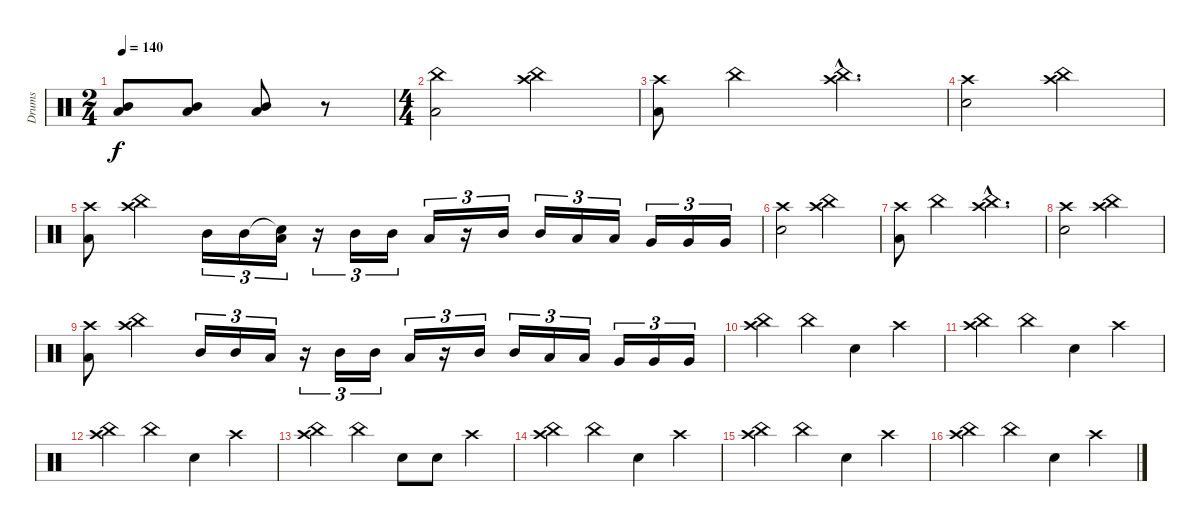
\track ("Drums" "Drums") {instrument percussion}
\staff {score}
\articulation defaults
\ts (2 4)
\tempo 140
\clef neutral
\ks c
("Mid Tom (hit)" "Low Floor Tom (hit)").8{dy f} ("Mid Tom (hit)" "Low Floor Tom (hit)").8 ("Mid Tom (hit)" "Low Floor Tom (hit)").8 r.8 |
\ts (4 4)
("China (hit)" "Low Floor Tom (hit)").2 ("Crash high (hit)" "China (hit)").2 |
("Crash high (hit)" "Low Floor Tom (hit)").8 "China (hit)".2 ("Crash high (hit)"{hac} "China (hit)"{hac}).4{d} |
("Crash high (hit)" "Snare (hit) 2").2 ("Crash high (hit)" "China (hit)").2 |
("Crash high (hit)" "Low Floor Tom (hit)").8 ("Crash high (hit)" "China (hit)").4 "Mid Tom (hit)".16{tu (3 2)} "Mid Tom (hit)".16{tu (3 2)} ("Snare (hit)"{t} "Low Floor Tom (hit)").16{tu (3 2)} r.16{tu (3 2)} "Mid Tom (hit)".16{tu (3 2)} "Mid Tom (hit)".16{tu (3 2)} "Low Floor Tom (hit)".16{tu (3 2)} r.16{tu (3 2)} "Mid Tom (hit)".16{tu (3 2)} "Mid Tom (hit)".16{tu (3 2)} "Low Floor Tom (hit)".16{tu (3 2)} "Low Floor Tom (hit)".16{tu (3 2)} "Very Low Tom (hit)".16{tu (3 2)} "Very Low Tom (hit)".16{tu (3 2)} "Very Low Tom (hit)".16{tu (3 2)} |
("Crash high (hit)" "Snare (hit) 2").2 ("Crash high (hit)" "China (hit)").2 |
("Crash high (hit)" "Low Floor Tom (hit)").8 "China (hit)".2 ("Crash high (hit)"{hac} "China (hit)"{hac}).4{d} |
("Crash high (hit)" "Snare (hit) 2").2 ("Crash high (hit)" "China (hit)").2 |
("Crash high (hit)" "Low Floor Tom (hit)").8 ("Crash high (hit)" "China (hit)").4 "Mid Tom (hit)".16{tu (3 2)} "Mid Tom (hit)".16{tu (3 2)} "Low Floor Tom (hit)".16{tu (3 2)} r.16{tu (3 2)} "Mid Tom (hit)".16{tu (3 2)} "Mid Tom (hit)".16{tu (3 2)} "Low Floor Tom (hit)".16{tu (3 2)} r.16{tu (3 2)} "Mid Tom (hit)".16{tu (3 2)} "Mid Tom (hit)".16{tu (3 2)} "Low Floor Tom (hit)".16{tu (3 2)} "Low Floor Tom (hit)".16{tu (3 2)} "Very Low Tom (hit)".16{tu (3 2)} "Very Low Tom (hit)".16{tu (3 2)} "Very Low Tom (hit)".16{tu (3 2)} |
("Crash high (hit)" "China (hit)").4 "China (hit)".4 "Electric Snare (hit)".4 "Crash high (hit)".4 |
("Crash high (hit)" "China (hit)").4 "China (hit)".4 "Electric Snare (hit)".4 "Crash high (hit)".4 |
("Crash high (hit)" "China (hit)").4 "China (hit)".4 "Electric Snare (hit)".4 "Crash high (hit)".4 |
("Crash high (hit)" "China (hit)").4 "China (hit)".4 "Electric Snare (hit)".8 "Electric Snare (hit)".8 "Crash high (hit)".4 |
("Crash high (hit)" "China (hit)").4 "China (hit)".4 "Electric Snare (hit)".4 "Crash high (hit)".4 |
("Crash high (hit)" "China (hit)").4 "China (hit)".4 "Electric Snare (hit)".4 "Crash high (hit)".4 |
("Crash high (hit)" "China (hit)").4 "China (hit)".4 "Electric Snare (hit)".4 "Crash high (hit)".4
